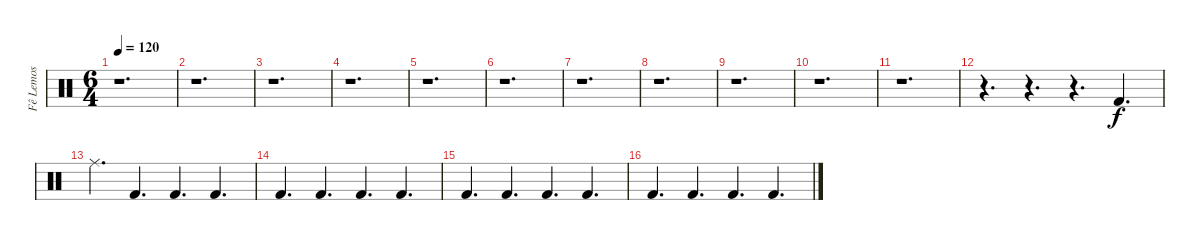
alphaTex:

\track ("Fê Lemos" "Fê Lemos") {instrument percussion}
\staff {score}
\articulation defaults
\ts (6 4)
\tempo 120
\clef neutral
\ks c
r.1{d dy f} |
r.1{d} |
r.1{d} |
r.1{d} |
r.1{d} |
r.1{d} |
r.1{d} |
r.1{d} |
r.1{d} |
r.1{d} |
r.1{d} |
r.4{d} r.4{d} r.4{d} "Kick (hit) 2".4{d} |
"Ride (middle)".4{d} "Kick (hit) 2".4{d} "Kick (hit) 2".4{d} "Kick (hit) 2".4{d} |
"Kick (hit) 2".4{d} "Kick (hit) 2".4{d} "Kick (hit) 2".4{d} "Kick (hit) 2".4{d} |
"Kick (hit) 2".4{d} "Kick (hit) 2".4{d} "Kick (hit) 2".4{d} "Kick (hit) 2".4{d} |
"Kick (hit) 2".4{d} "Kick (hit) 2".4{d} "Kick (hit) 2".4{d} "Kick (hit) 2".4{d}
